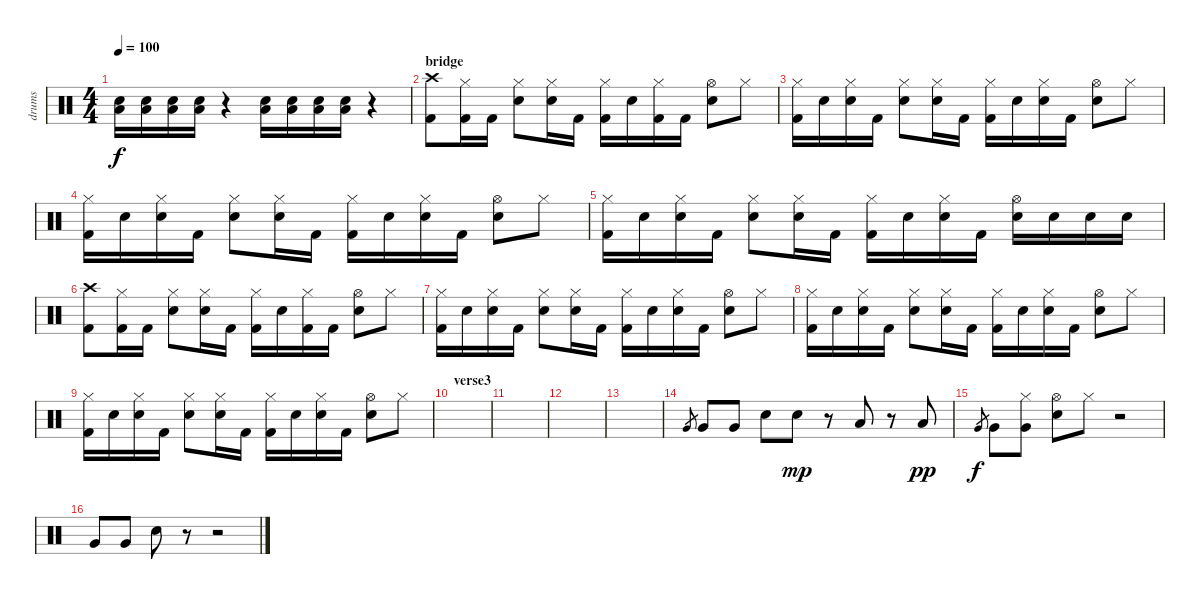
\track ("drums" "drums") {instrument percussion}
\staff {score}
\articulation defaults
\ts (4 4)
\tempo 100
\clef neutral
\ks c
("Low Floor Tom (hit)" "Electric Snare (hit)").16{dy f} ("Low Floor Tom (hit)" "Electric Snare (hit)").16 ("Low Floor Tom (hit)" "Electric Snare (hit)").16 ("Low Floor Tom (hit)" "Electric Snare (hit)").16 r.4 ("Low Floor Tom (hit)" "Electric Snare (hit)").16 ("Low Floor Tom (hit)" "Electric Snare (hit)").16 ("Low Floor Tom (hit)" "Electric Snare (hit)").16 ("Low Floor Tom (hit)" "Electric Snare (hit)").16 r.4 |
\section ("" "bridge")
("Crash high (hit)" "Kick (hit) 2").8 ("Hi-Hat (closed)" "Kick (hit) 2").16 "Kick (hit) 2".16 ("Hi-Hat (closed)" "Electric Snare (hit)").8 ("Hi-Hat (closed)" "Electric Snare (hit)").16 "Kick (hit) 2".16 ("Hi-Hat (closed)" "Kick (hit) 2").16 "Electric Snare (hit)".16 ("Hi-Hat (closed)" "Kick (hit) 2").16 "Kick (hit) 2".16 ("Hi-Hat (open)" "Electric Snare (hit)").8 "Hi-Hat (closed)".8 |
("Hi-Hat (closed)" "Kick (hit) 2").16 "Electric Snare (hit)".16 ("Hi-Hat (closed)" "Electric Snare (hit)").16 "Kick (hit) 2".16 ("Hi-Hat (closed)" "Electric Snare (hit)").8 ("Hi-Hat (closed)" "Electric Snare (hit)").16 "Kick (hit) 2".16 ("Hi-Hat (closed)" "Kick (hit) 2").16 "Electric Snare (hit)".16 ("Hi-Hat (closed)" "Electric Snare (hit)").16 "Kick (hit) 2".16 ("Hi-Hat (open)" "Electric Snare (hit)").8 "Hi-Hat (closed)".8 |
("Hi-Hat (closed)" "Kick (hit) 2").16 "Electric Snare (hit)".16 ("Hi-Hat (closed)" "Electric Snare (hit)").16 "Kick (hit) 2".16 ("Hi-Hat (closed)" "Electric Snare (hit)").8 ("Hi-Hat (closed)" "Electric Snare (hit)").16 "Kick (hit) 2".16 ("Hi-Hat (closed)" "Kick (hit) 2").16 "Electric Snare (hit)".16 ("Hi-Hat (closed)" "Electric Snare (hit)").16 "Kick (hit) 2".16 ("Hi-Hat (open)" "Electric Snare (hit)").8 "Hi-Hat (closed)".8 |
("Hi-Hat (closed)" "Kick (hit) 2").16 "Electric Snare (hit)".16 ("Hi-Hat (closed)" "Electric Snare (hit)").16 "Kick (hit) 2".16 ("Hi-Hat (closed)" "Electric Snare (hit)").8 ("Hi-Hat (closed)" "Electric Snare (hit)").16 "Kick (hit) 2".16 ("Hi-Hat (closed)" "Kick (hit) 2").16 "Electric Snare (hit)".16 ("Hi-Hat (closed)" "Electric Snare (hit)").16 "Kick (hit) 2".16 ("Hi-Hat (open)" "Electric Snare (hit)").16 "Electric Snare (hit)".16 "Electric Snare (hit)".16 "Electric Snare (hit)".16 |
("Crash high (hit)" "Kick (hit) 2").8 ("Hi-Hat (closed)" "Kick (hit) 2").16 "Kick (hit) 2".16 ("Hi-Hat (closed)" "Electric Snare (hit)").8 ("Hi-Hat (closed)" "Electric Snare (hit)").16 "Kick (hit) 2".16 ("Hi-Hat (closed)" "Kick (hit) 2").16 "Electric Snare (hit)".16 ("Hi-Hat (closed)" "Kick (hit) 2").16 "Kick (hit) 2".16 ("Hi-Hat (open)" "Electric Snare (hit)").8 "Hi-Hat (closed)".8 |
("Hi-Hat (closed)" "Kick (hit) 2").16 "Electric Snare (hit)".16 ("Hi-Hat (closed)" "Electric Snare (hit)").16 "Kick (hit) 2".16 ("Hi-Hat (closed)" "Electric Snare (hit)").8 ("Hi-Hat (closed)" "Electric Snare (hit)").16 "Kick (hit) 2".16 ("Hi-Hat (closed)" "Kick (hit) 2").16 "Electric Snare (hit)".16 ("Hi-Hat (closed)" "Electric Snare (hit)").16 "Kick (hit) 2".16 ("Hi-Hat (open)" "Electric Snare (hit)").8 "Hi-Hat (closed)".8 |
("Hi-Hat (closed)" "Kick (hit) 2").16 "Electric Snare (hit)".16 ("Hi-Hat (closed)" "Electric Snare (hit)").16 "Kick (hit) 2".16 ("Hi-Hat (closed)" "Electric Snare (hit)").8 ("Hi-Hat (closed)" "Electric Snare (hit)").16 "Kick (hit) 2".16 ("Hi-Hat (closed)" "Kick (hit) 2").16 "Electric Snare (hit)".16 ("Hi-Hat (closed)" "Electric Snare (hit)").16 "Kick (hit) 2".16 ("Hi-Hat (open)" "Electric Snare (hit)").8 "Hi-Hat (closed)".8 |
("Hi-Hat (closed)" "Kick (hit) 2").16 "Electric Snare (hit)".16 ("Hi-Hat (closed)" "Electric Snare (hit)").16 "Kick (hit) 2".16 ("Hi-Hat (closed)" "Electric Snare (hit)").8 ("Hi-Hat (closed)" "Electric Snare (hit)").16 "Kick (hit) 2".16 ("Hi-Hat (closed)" "Kick (hit) 2").16 "Electric Snare (hit)".16 ("Hi-Hat (closed)" "Electric Snare (hit)").16 "Kick (hit) 2".16 ("Hi-Hat (open)" "Electric Snare (hit)").8 "Hi-Hat (closed)".8 |
\section ("" "verse3")
|
|
|
|
"Very Low Tom (hit)".8{gr} "Very Low Tom (hit)".8 "Very Low Tom (hit)".8 "Electric Snare (hit)".8 "Electric Snare (hit)".8{dy mp} r.8 "Low Floor Tom (hit)".8 r.8 "Low Floor Tom (hit)".8{dy pp} |
"Very Low Tom (hit)".8{gr dy f} "Very Low Tom (hit)".8 ("Hi-Hat (closed)" "Very Low Tom (hit)").8 ("Hi-Hat (open)" "Electric Snare (hit)").8 "Hi-Hat (closed)".8 r.2 |
"Very Low Tom (hit)".8 "Very Low Tom (hit)".8 "Electric Snare (hit)".8 r.8 r.2
